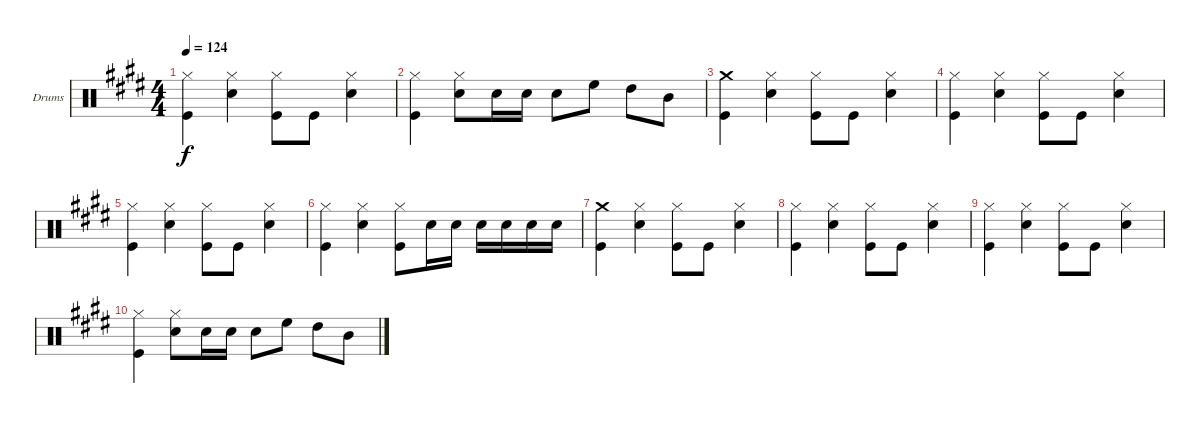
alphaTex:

\defaultSystemsLayout 4
\bracketExtendMode groupsimilarinstruments
\firstSystemTrackNameOrientation horizontal
\otherSystemsTrackNameOrientation horizontal
\track ("Drumkit" "Drums") {instrument percussion}
\staff {score}
\articulation defaults
\ts (4 4)
\tempo 124
\clef neutral
\ks e
("Hi-Hat (closed)" "Kick (hit)").4{dy f} ("Hi-Hat (closed)" "Snare (hit) 2").4 ("Hi-Hat (closed)" "Kick (hit)").8 "Kick (hit)".8 ("Hi-Hat (closed)" "Snare (hit) 2").4 |
("Hi-Hat (closed)" "Kick (hit)").4 ("Hi-Hat (closed)" "Snare (hit) 2").8 "Snare (hit) 2".16 "Snare (hit) 2".16 "Snare (hit) 2".8 "High Floor Tom (hit)".8 "High Tom (hit)".8 "Mid Tom (hit)".8 |
("Crash medium (hit)" "Kick (hit)").4 ("Hi-Hat (closed)" "Snare (hit) 2").4 ("Hi-Hat (closed)" "Kick (hit)").8 "Kick (hit)".8 ("Hi-Hat (closed)" "Snare (hit) 2").4 |
("Hi-Hat (closed)" "Kick (hit)").4 ("Hi-Hat (closed)" "Snare (hit) 2").4 ("Hi-Hat (closed)" "Kick (hit)").8 "Kick (hit)".8 ("Hi-Hat (closed)" "Snare (hit) 2").4 |
("Hi-Hat (closed)" "Kick (hit)").4 ("Hi-Hat (closed)" "Snare (hit) 2").4 ("Hi-Hat (closed)" "Kick (hit)").8 "Kick (hit)".8 ("Hi-Hat (closed)" "Snare (hit) 2").4 |
("Hi-Hat (closed)" "Kick (hit)").4 ("Hi-Hat (closed)" "Snare (hit) 2").4 ("Hi-Hat (closed)" "Kick (hit)").8 "Snare (hit) 2".16 "Snare (hit) 2".16 "Snare (hit) 2".16 "Snare (hit) 2".16 "Snare (hit) 2".16 "Snare (hit) 2".16 |
("Crash medium (hit)" "Kick (hit)").4 ("Hi-Hat (closed)" "Snare (hit) 2").4 ("Hi-Hat (closed)" "Kick (hit)").8 "Kick (hit)".8 ("Hi-Hat (closed)" "Snare (hit) 2").4 |
("Hi-Hat (closed)" "Kick (hit)").4 ("Hi-Hat (closed)" "Snare (hit) 2").4 ("Hi-Hat (closed)" "Kick (hit)").8 "Kick (hit)".8 ("Hi-Hat (closed)" "Snare (hit) 2").4 |
("Hi-Hat (closed)" "Kick (hit)").4 ("Hi-Hat (closed)" "Snare (hit) 2").4 ("Hi-Hat (closed)" "Kick (hit)").8 "Kick (hit)".8 ("Hi-Hat (closed)" "Snare (hit) 2").4 |
("Hi-Hat (closed)" "Kick (hit)").4 ("Hi-Hat (closed)" "Snare (hit) 2").8 "Snare (hit) 2".16 "Snare (hit) 2".16 "Snare (hit) 2".8 "High Floor Tom (hit)".8 "High Tom (hit)".8 "Mid Tom (hit)".8
